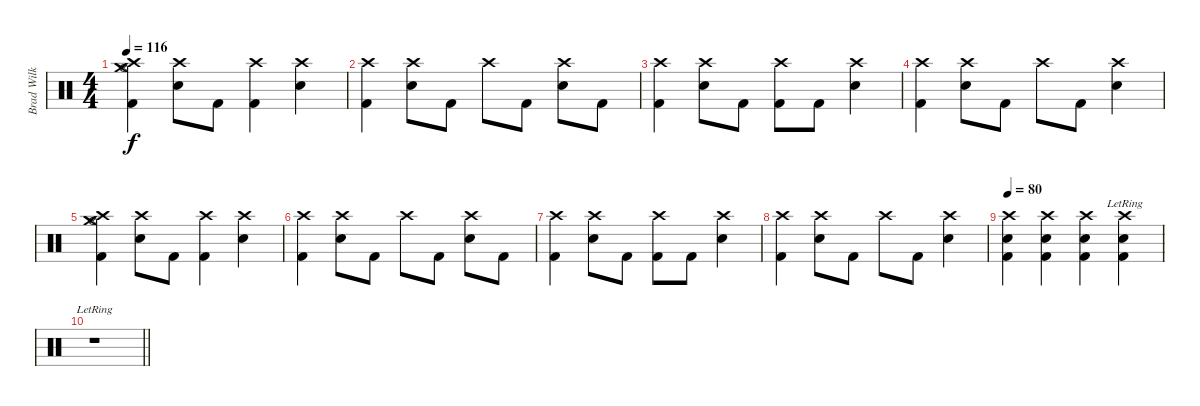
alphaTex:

\track ("Brad Wilk" "Brad Wilk") {instrument percussion}
\staff {score}
\articulation defaults
\ts (4 4)
\tempo 116
\clef neutral
\ks c
("Crash high (hit)" "Kick (hit) 2" "Crash medium (hit)" "Hi-Hat (open)").4{dy f} ("Crash high (hit)" "Snare (hit) 2").8 "Kick (hit) 2".8 ("Crash high (hit)" "Kick (hit) 2").4 ("Crash high (hit)" "Snare (hit) 2").4 |
("Crash high (hit)" "Kick (hit) 2").4 ("Crash high (hit)" "Snare (hit) 2").8 "Kick (hit) 2".8 "Crash high (hit)".8 "Kick (hit) 2".8 ("Crash high (hit)" "Snare (hit) 2").8 "Kick (hit) 2".8 |
("Crash high (hit)" "Kick (hit) 2").4 ("Crash high (hit)" "Snare (hit) 2").8 "Kick (hit) 2".8 ("Crash high (hit)" "Kick (hit) 2").8 "Kick (hit) 2".8 ("Crash high (hit)" "Snare (hit) 2").4 |
("Crash high (hit)" "Kick (hit) 2").4 ("Crash high (hit)" "Snare (hit) 2").8 "Kick (hit) 2".8 "Crash high (hit)".8 "Kick (hit) 2".8 ("Crash high (hit)" "Snare (hit) 2").4 |
("Crash high (hit)" "Kick (hit) 2" "Crash medium (hit)" "Hi-Hat (open)").4 ("Crash high (hit)" "Snare (hit) 2").8 "Kick (hit) 2".8 ("Crash high (hit)" "Kick (hit) 2").4 ("Crash high (hit)" "Snare (hit) 2").4 |
("Crash high (hit)" "Kick (hit) 2").4 ("Crash high (hit)" "Snare (hit) 2").8 "Kick (hit) 2".8 "Crash high (hit)".8 "Kick (hit) 2".8 ("Crash high (hit)" "Snare (hit) 2").8 "Kick (hit) 2".8 |
("Crash high (hit)" "Kick (hit) 2").4 ("Crash high (hit)" "Snare (hit) 2").8 "Kick (hit) 2".8 ("Crash high (hit)" "Kick (hit) 2").8 "Kick (hit) 2".8 ("Crash high (hit)" "Snare (hit) 2").4 |
("Crash high (hit)" "Kick (hit) 2").4 ("Crash high (hit)" "Snare (hit) 2").8 "Kick (hit) 2".8 "Crash high (hit)".8 "Kick (hit) 2".8 ("Crash high (hit)" "Snare (hit) 2").4 |
\tempo 80
("Crash high (hit)" "Kick (hit) 2" "Snare (hit) 2").4 ("Crash high (hit)" "Kick (hit) 2" "Snare (hit) 2").4 ("Crash high (hit)" "Kick (hit) 2" "Snare (hit) 2").4 ("Crash high (hit)"{lr} "Kick (hit) 2"{lr} "Snare (hit) 2"{lr}).4 |
\barLineRight lightlight
r.1
